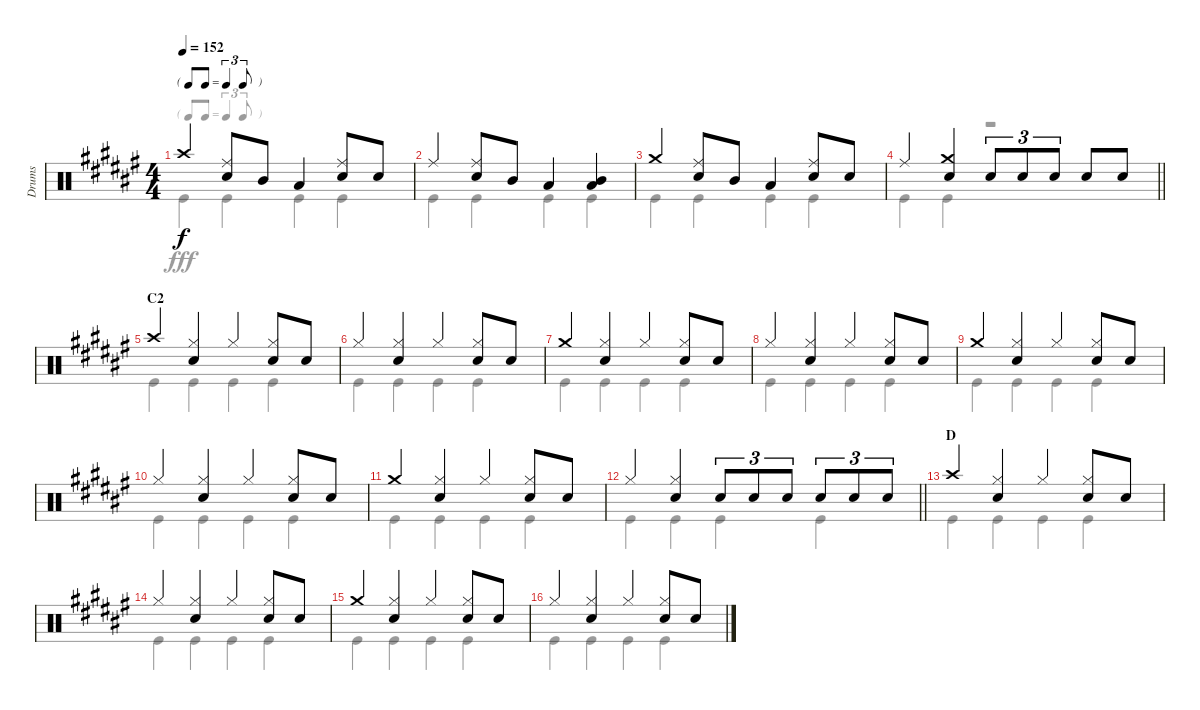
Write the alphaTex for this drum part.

\track ("Drums" "Drums") {instrument percussion}
\staff {score}
\articulation defaults
\voice
\ts (4 4)
\tf triplet8th
\tempo 152
\clef neutral
\ks f# "Crash high (hit)".4{dy f}
("Ride (middle)" "Snare (hit) 2").8 "Mid Tom (hit)".8 "Low Tom (hit)".4 ("Ride (middle)" "Snare (hit) 2").8 "Snare (hit) 2".8 |
"Ride (middle)".4 ("Ride (middle)" "Snare (hit) 2").8 "Mid Tom (hit)".8 "Low Tom (hit)".4 ("Mid Tom (hit)" "Low Tom (hit)").4 |
"Crash medium (hit)".4 ("Ride (middle)" "Snare (hit) 2").8 "Mid Tom (hit)".8 "Low Tom (hit)".4 ("Ride (middle)" "Snare (hit) 2").8 "Snare (hit) 2".8 |
\barLineRight lightlight "Ride (middle)".4
("Crash medium (hit)" "Snare (hit) 2").4 "Snare (hit) 2".8{tu (3 2)} "Snare (hit) 2".8{tu (3 2)} "Snare (hit) 2".8{tu (3 2)} "Snare (hit) 2".8 "Snare (hit) 2".8 |
\section ("" "C2")
"Crash high (hit)".4 ("Hi-Hat (closed)" "Snare (hit) 2").4 "Hi-Hat (closed)".4 ("Hi-Hat (closed)" "Snare (hit) 2").8 "Snare (hit) 2".8 |
"Hi-Hat (closed)".4 ("Hi-Hat (closed)" "Snare (hit) 2").4 "Hi-Hat (closed)".4 ("Hi-Hat (closed)" "Snare (hit) 2").8 "Snare (hit) 2".8 |
"Crash medium (hit)".4 ("Hi-Hat (closed)" "Snare (hit) 2").4 "Hi-Hat (closed)".4 ("Hi-Hat (closed)" "Snare (hit) 2").8 "Snare (hit) 2".8 |
"Hi-Hat (closed)".4 ("Hi-Hat (closed)" "Snare (hit) 2").4 "Hi-Hat (closed)".4 ("Hi-Hat (closed)" "Snare (hit) 2").8 "Snare (hit) 2".8 |
"Crash medium (hit)".4 ("Hi-Hat (closed)" "Snare (hit) 2").4 "Hi-Hat (closed)".4 ("Hi-Hat (closed)" "Snare (hit) 2").8 "Snare (hit) 2".8 |
"Hi-Hat (closed)".4 ("Hi-Hat (closed)" "Snare (hit) 2").4 "Hi-Hat (closed)".4 ("Hi-Hat (closed)" "Snare (hit) 2").8 "Snare (hit) 2".8 |
"Crash medium (hit)".4 ("Hi-Hat (closed)" "Snare (hit) 2").4 "Hi-Hat (closed)".4 ("Hi-Hat (closed)" "Snare (hit) 2").8 "Snare (hit) 2".8 |
\barLineRight lightlight "Hi-Hat (closed)".4
("Hi-Hat (closed)" "Snare (hit) 2").4 "Snare (hit) 2".8{tu (3 2)} "Snare (hit) 2".8{tu (3 2)} "Snare (hit) 2".8{tu (3 2)} "Snare (hit) 2".8{tu (3 2)} "Snare (hit) 2".8{tu (3 2)} "Snare (hit) 2".8{tu (3 2)} |
\section ("" "D")
"Crash high (hit)".4 ("Hi-Hat (closed)" "Snare (hit) 2").4 "Hi-Hat (closed)".4 ("Hi-Hat (closed)" "Snare (hit) 2").8 "Snare (hit) 2".8 |
"Hi-Hat (closed)".4 ("Hi-Hat (closed)" "Snare (hit) 2").4 "Hi-Hat (closed)".4 ("Hi-Hat (closed)" "Snare (hit) 2").8 "Snare (hit) 2".8 |
"Crash medium (hit)".4 ("Hi-Hat (closed)" "Snare (hit) 2").4 "Hi-Hat (closed)".4 ("Hi-Hat (closed)" "Snare (hit) 2").8 "Snare (hit) 2".8 |
"Hi-Hat (closed)".4 ("Hi-Hat (closed)" "Snare (hit) 2").4 "Hi-Hat (closed)".4 ("Hi-Hat (closed)" "Snare (hit) 2").8 "Snare (hit) 2".8
\voice
\clef neutral
\ottava regular
\simile none
\ks f# "Kick (hit)".4{dy fff} "Kick (hit)".4 "Kick (hit)".4 "Kick (hit)".4
|
"Kick (hit)".4 "Kick (hit)".4 "Kick (hit)".4 "Kick (hit)".4 |
"Kick (hit)".4 "Kick (hit)".4 "Kick (hit)".4 "Kick (hit)".4 |
\barLineRight lightlight "Kick (hit)".4 "Kick (hit)".4
r.2 |
"Kick (hit)".4 "Kick (hit)".4 "Kick (hit)".4 "Kick (hit)".4 |
"Kick (hit)".4 "Kick (hit)".4 "Kick (hit)".4 "Kick (hit)".4 |
"Kick (hit)".4 "Kick (hit)".4 "Kick (hit)".4 "Kick (hit)".4 |
"Kick (hit)".4 "Kick (hit)".4 "Kick (hit)".4 "Kick (hit)".4 |
"Kick (hit)".4 "Kick (hit)".4 "Kick (hit)".4 "Kick (hit)".4 |
"Kick (hit)".4 "Kick (hit)".4 "Kick (hit)".4 "Kick (hit)".4 |
"Kick (hit)".4 "Kick (hit)".4 "Kick (hit)".4 "Kick (hit)".4 |
\barLineRight lightlight "Kick (hit)".4 "Kick (hit)".4 "Kick (hit)".4 "Kick (hit)".4
|
"Kick (hit)".4 "Kick (hit)".4 "Kick (hit)".4 "Kick (hit)".4 |
"Kick (hit)".4 "Kick (hit)".4 "Kick (hit)".4 "Kick (hit)".4 |
"Kick (hit)".4 "Kick (hit)".4 "Kick (hit)".4 "Kick (hit)".4 |
"Kick (hit)".4 "Kick (hit)".4 "Kick (hit)".4 "Kick (hit)".4
